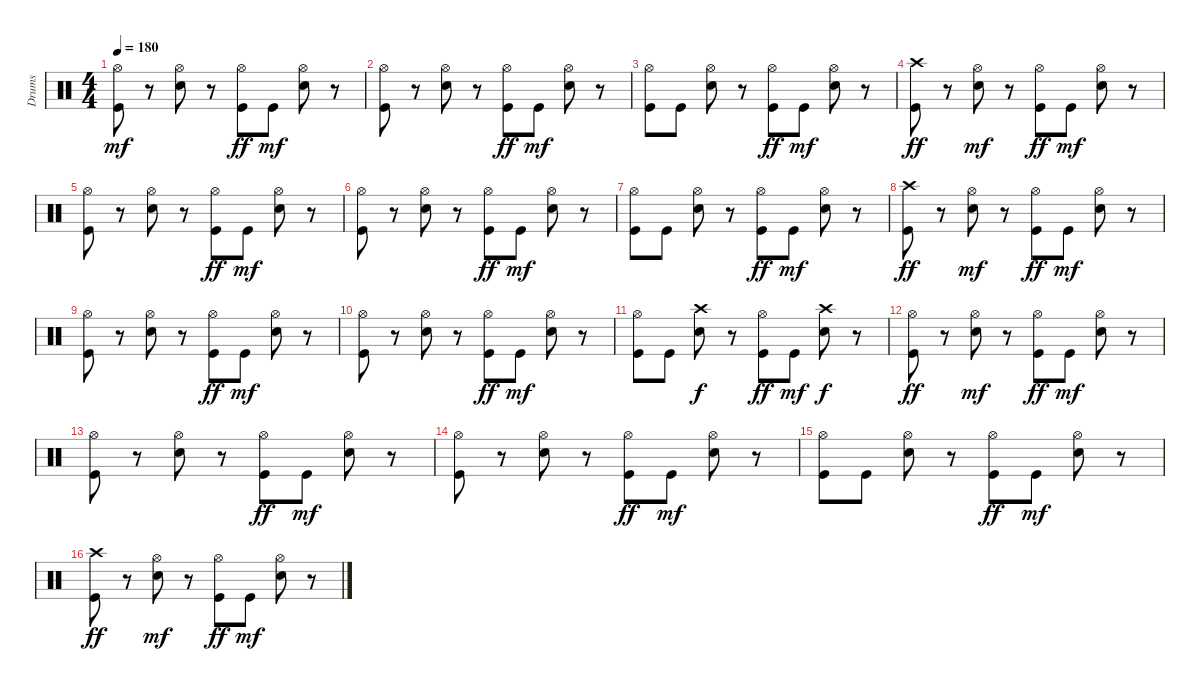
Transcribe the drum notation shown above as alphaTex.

\track ("Drums" "Drums") {instrument percussion}
\staff {score}
\articulation defaults
\ts (4 4)
\tempo 180
\clef neutral
\ks c
("Kick (hit)" "Hi-Hat (open)").8{dy mf} r.8 ("Hi-Hat (open)" "Snare (hit) 2").8 r.8 ("Hi-Hat (open)" "Kick (hit)").8{dy ff} "Kick (hit)".8{dy mf} ("Snare (hit) 2" "Hi-Hat (open)").8 r.8 |
("Kick (hit)" "Hi-Hat (open)").8 r.8 ("Hi-Hat (open)" "Snare (hit) 2").8 r.8 ("Hi-Hat (open)" "Kick (hit)").8{dy ff} "Kick (hit)".8{dy mf} ("Snare (hit) 2" "Hi-Hat (open)").8 r.8 |
("Kick (hit)" "Hi-Hat (open)").8 "Kick (hit)".8 ("Hi-Hat (open)" "Snare (hit) 2").8 r.8 ("Hi-Hat (open)" "Kick (hit)").8{dy ff} "Kick (hit)".8{dy mf} ("Hi-Hat (open)" "Snare (hit) 2").8 r.8 |
("Crash high (hit)" "Kick (hit)").8{dy ff} r.8 ("Hi-Hat (open)" "Snare (hit) 2").8{dy mf} r.8 ("Hi-Hat (open)" "Kick (hit)").8{dy ff} "Kick (hit)".8{dy mf} ("Hi-Hat (open)" "Snare (hit) 2").8 r.8 |
("Kick (hit)" "Hi-Hat (open)").8 r.8 ("Hi-Hat (open)" "Snare (hit) 2").8 r.8 ("Hi-Hat (open)" "Kick (hit)").8{dy ff} "Kick (hit)".8{dy mf} ("Snare (hit) 2" "Hi-Hat (open)").8 r.8 |
("Kick (hit)" "Hi-Hat (open)").8 r.8 ("Hi-Hat (open)" "Snare (hit) 2").8 r.8 ("Hi-Hat (open)" "Kick (hit)").8{dy ff} "Kick (hit)".8{dy mf} ("Snare (hit) 2" "Hi-Hat (open)").8 r.8 |
("Kick (hit)" "Hi-Hat (open)").8 "Kick (hit)".8 ("Hi-Hat (open)" "Snare (hit) 2").8 r.8 ("Hi-Hat (open)" "Kick (hit)").8{dy ff} "Kick (hit)".8{dy mf} ("Hi-Hat (open)" "Snare (hit) 2").8 r.8 |
("Crash high (hit)" "Kick (hit)").8{dy ff} r.8 ("Hi-Hat (open)" "Snare (hit) 2").8{dy mf} r.8 ("Hi-Hat (open)" "Kick (hit)").8{dy ff} "Kick (hit)".8{dy mf} ("Hi-Hat (open)" "Snare (hit) 2").8 r.8 |
("Kick (hit)" "Hi-Hat (open)").8 r.8 ("Hi-Hat (open)" "Snare (hit) 2").8 r.8 ("Hi-Hat (open)" "Kick (hit)").8{dy ff} "Kick (hit)".8{dy mf} ("Snare (hit) 2" "Hi-Hat (open)").8 r.8 |
("Kick (hit)" "Hi-Hat (open)").8 r.8 ("Hi-Hat (open)" "Snare (hit) 2").8 r.8 ("Hi-Hat (open)" "Kick (hit)").8{dy ff} "Kick (hit)".8{dy mf} ("Snare (hit) 2" "Hi-Hat (open)").8 r.8 |
("Kick (hit)" "Hi-Hat (open)").8 "Kick (hit)".8 ("Crash high (hit)" "Snare (hit) 2").8{dy f} r.8 ("Hi-Hat (open)" "Kick (hit)").8{dy ff} "Kick (hit)".8{dy mf} ("Crash high (hit)" "Snare (hit) 2").8{dy f} r.8 |
("Hi-Hat (open)" "Kick (hit)").8{dy ff} r.8 ("Hi-Hat (open)" "Snare (hit) 2").8{dy mf} r.8 ("Hi-Hat (open)" "Kick (hit)").8{dy ff} "Kick (hit)".8{dy mf} ("Hi-Hat (open)" "Snare (hit) 2").8 r.8 |
("Kick (hit)" "Hi-Hat (open)").8 r.8 ("Hi-Hat (open)" "Snare (hit) 2").8 r.8 ("Hi-Hat (open)" "Kick (hit)").8{dy ff} "Kick (hit)".8{dy mf} ("Snare (hit) 2" "Hi-Hat (open)").8 r.8 |
("Kick (hit)" "Hi-Hat (open)").8 r.8 ("Hi-Hat (open)" "Snare (hit) 2").8 r.8 ("Hi-Hat (open)" "Kick (hit)").8{dy ff} "Kick (hit)".8{dy mf} ("Snare (hit) 2" "Hi-Hat (open)").8 r.8 |
("Kick (hit)" "Hi-Hat (open)").8 "Kick (hit)".8 ("Hi-Hat (open)" "Snare (hit) 2").8 r.8 ("Hi-Hat (open)" "Kick (hit)").8{dy ff} "Kick (hit)".8{dy mf} ("Hi-Hat (open)" "Snare (hit) 2").8 r.8 |
("Crash high (hit)" "Kick (hit)").8{dy ff} r.8 ("Hi-Hat (open)" "Snare (hit) 2").8{dy mf} r.8 ("Hi-Hat (open)" "Kick (hit)").8{dy ff} "Kick (hit)".8{dy mf} ("Hi-Hat (open)" "Snare (hit) 2").8 r.8
